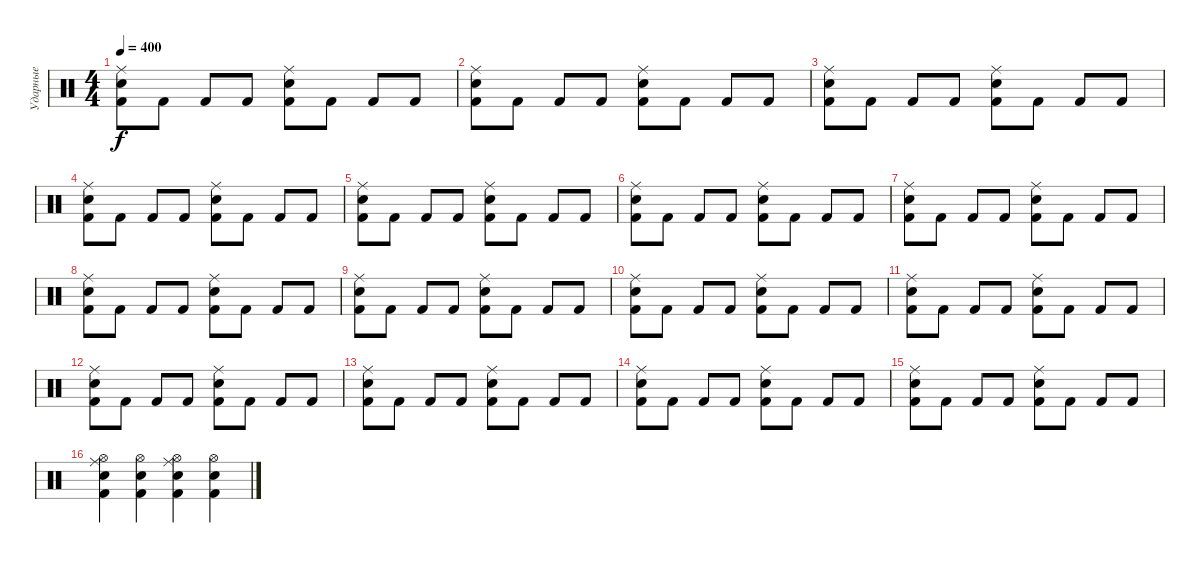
\track ("Ударные" "Ударные") {instrument percussion}
\staff {score}
\articulation defaults
\ts (4 4)
\tempo 400
\clef neutral
\ks c
("Kick (hit) 2" "Electric Snare (hit)" "Ride (middle)").8{dy f} "Kick (hit) 2".8 "Kick (hit) 2".8 "Kick (hit) 2".8 ("Kick (hit) 2" "Electric Snare (hit)" "Ride (middle)").8 "Kick (hit) 2".8 "Kick (hit) 2".8 "Kick (hit) 2".8 |
("Kick (hit) 2" "Electric Snare (hit)" "Ride (middle)").8 "Kick (hit) 2".8 "Kick (hit) 2".8 "Kick (hit) 2".8 ("Kick (hit) 2" "Electric Snare (hit)" "Ride (middle)").8 "Kick (hit) 2".8 "Kick (hit) 2".8 "Kick (hit) 2".8 |
("Kick (hit) 2" "Electric Snare (hit)" "Ride (middle)").8 "Kick (hit) 2".8 "Kick (hit) 2".8 "Kick (hit) 2".8 ("Kick (hit) 2" "Electric Snare (hit)" "Ride (middle)").8 "Kick (hit) 2".8 "Kick (hit) 2".8 "Kick (hit) 2".8 |
("Kick (hit) 2" "Electric Snare (hit)" "Ride (middle)").8 "Kick (hit) 2".8 "Kick (hit) 2".8 "Kick (hit) 2".8 ("Kick (hit) 2" "Electric Snare (hit)" "Ride (middle)").8 "Kick (hit) 2".8 "Kick (hit) 2".8 "Kick (hit) 2".8 |
("Kick (hit) 2" "Electric Snare (hit)" "Ride (middle)").8 "Kick (hit) 2".8 "Kick (hit) 2".8 "Kick (hit) 2".8 ("Kick (hit) 2" "Electric Snare (hit)" "Ride (middle)").8 "Kick (hit) 2".8 "Kick (hit) 2".8 "Kick (hit) 2".8 |
("Kick (hit) 2" "Electric Snare (hit)" "Ride (middle)").8 "Kick (hit) 2".8 "Kick (hit) 2".8 "Kick (hit) 2".8 ("Kick (hit) 2" "Electric Snare (hit)" "Ride (middle)").8 "Kick (hit) 2".8 "Kick (hit) 2".8 "Kick (hit) 2".8 |
("Kick (hit) 2" "Electric Snare (hit)" "Ride (middle)").8 "Kick (hit) 2".8 "Kick (hit) 2".8 "Kick (hit) 2".8 ("Kick (hit) 2" "Electric Snare (hit)" "Ride (middle)").8 "Kick (hit) 2".8 "Kick (hit) 2".8 "Kick (hit) 2".8 |
("Kick (hit) 2" "Electric Snare (hit)" "Ride (middle)").8 "Kick (hit) 2".8 "Kick (hit) 2".8 "Kick (hit) 2".8 ("Kick (hit) 2" "Electric Snare (hit)" "Ride (middle)").8 "Kick (hit) 2".8 "Kick (hit) 2".8 "Kick (hit) 2".8 |
("Kick (hit) 2" "Electric Snare (hit)" "Ride (middle)").8 "Kick (hit) 2".8 "Kick (hit) 2".8 "Kick (hit) 2".8 ("Kick (hit) 2" "Electric Snare (hit)" "Ride (middle)").8 "Kick (hit) 2".8 "Kick (hit) 2".8 "Kick (hit) 2".8 |
("Kick (hit) 2" "Electric Snare (hit)" "Ride (middle)").8 "Kick (hit) 2".8 "Kick (hit) 2".8 "Kick (hit) 2".8 ("Kick (hit) 2" "Electric Snare (hit)" "Ride (middle)").8 "Kick (hit) 2".8 "Kick (hit) 2".8 "Kick (hit) 2".8 |
("Kick (hit) 2" "Electric Snare (hit)" "Ride (middle)").8 "Kick (hit) 2".8 "Kick (hit) 2".8 "Kick (hit) 2".8 ("Kick (hit) 2" "Electric Snare (hit)" "Ride (middle)").8 "Kick (hit) 2".8 "Kick (hit) 2".8 "Kick (hit) 2".8 |
("Kick (hit) 2" "Electric Snare (hit)" "Ride (middle)").8 "Kick (hit) 2".8 "Kick (hit) 2".8 "Kick (hit) 2".8 ("Kick (hit) 2" "Electric Snare (hit)" "Ride (middle)").8 "Kick (hit) 2".8 "Kick (hit) 2".8 "Kick (hit) 2".8 |
("Kick (hit) 2" "Electric Snare (hit)" "Ride (middle)").8 "Kick (hit) 2".8 "Kick (hit) 2".8 "Kick (hit) 2".8 ("Kick (hit) 2" "Electric Snare (hit)" "Ride (middle)").8 "Kick (hit) 2".8 "Kick (hit) 2".8 "Kick (hit) 2".8 |
("Kick (hit) 2" "Electric Snare (hit)" "Ride (middle)").8 "Kick (hit) 2".8 "Kick (hit) 2".8 "Kick (hit) 2".8 ("Kick (hit) 2" "Electric Snare (hit)" "Ride (middle)").8 "Kick (hit) 2".8 "Kick (hit) 2".8 "Kick (hit) 2".8 |
("Kick (hit) 2" "Electric Snare (hit)" "Ride (middle)").8 "Kick (hit) 2".8 "Kick (hit) 2".8 "Kick (hit) 2".8 ("Kick (hit) 2" "Electric Snare (hit)" "Ride (middle)").8 "Kick (hit) 2".8 "Kick (hit) 2".8 "Kick (hit) 2".8 |
("Electric Snare (hit)" "Hi-Hat (open)" "Ride (middle)" "Kick (hit) 2").4 ("Hi-Hat (open)" "Kick (hit) 2" "Electric Snare (hit)").4 ("Electric Snare (hit)" "Kick (hit) 2" "Hi-Hat (open)" "Ride (middle)").4 ("Hi-Hat (open)" "Kick (hit) 2" "Electric Snare (hit)").4
